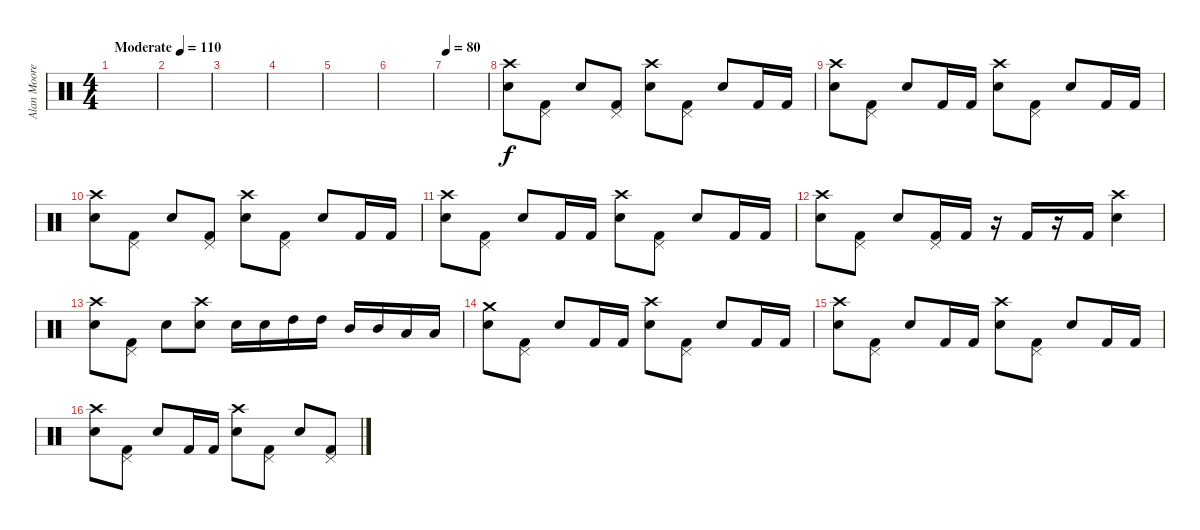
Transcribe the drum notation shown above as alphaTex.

\track ("Alan Moore" "Alan Moore") {instrument percussion}
\staff {score}
\articulation defaults
\ts (4 4)
\tempo (110 "Moderate")
\clef neutral
\ks c
|
|
|
|
|
|
\tempo 80
|
("Snare (hit) 2" "Crash high (hit)").8 ("Pedal Hi-Hat (hit)" "Kick (hit) 2").8 "Snare (hit) 2".8 ("Pedal Hi-Hat (hit)" "Kick (hit) 2").8 ("Snare (hit) 2" "Crash high (hit)").8 ("Pedal Hi-Hat (hit)" "Kick (hit) 2").8 "Snare (hit) 2".8 "Kick (hit) 2".16 "Kick (hit) 2".16 |
("Snare (hit) 2" "Crash high (hit)").8 ("Pedal Hi-Hat (hit)" "Kick (hit) 2").8 "Snare (hit) 2".8 "Kick (hit) 2".16 "Kick (hit) 2".16 ("Snare (hit) 2" "Crash high (hit)").8 ("Pedal Hi-Hat (hit)" "Kick (hit) 2").8 "Snare (hit) 2".8 "Kick (hit) 2".16 "Kick (hit) 2".16 |
("Snare (hit) 2" "Crash high (hit)").8 ("Pedal Hi-Hat (hit)" "Kick (hit) 2").8 "Snare (hit) 2".8 ("Pedal Hi-Hat (hit)" "Kick (hit) 2").8 ("Snare (hit) 2" "Crash high (hit)").8 ("Pedal Hi-Hat (hit)" "Kick (hit) 2").8 "Snare (hit) 2".8 "Kick (hit) 2".16 "Kick (hit) 2".16 |
("Snare (hit) 2" "Crash high (hit)").8 ("Pedal Hi-Hat (hit)" "Kick (hit) 2").8 "Snare (hit) 2".8 "Kick (hit) 2".16 "Kick (hit) 2".16 ("Snare (hit) 2" "Crash high (hit)").8 ("Pedal Hi-Hat (hit)" "Kick (hit) 2").8 "Snare (hit) 2".8 "Kick (hit) 2".16 "Kick (hit) 2".16 |
("Snare (hit) 2" "Crash high (hit)").8 ("Pedal Hi-Hat (hit)" "Kick (hit) 2").8 "Snare (hit) 2".8 ("Pedal Hi-Hat (hit)" "Kick (hit) 2").16 "Kick (hit) 2".16 r.16 "Kick (hit) 2".16 r.16 "Kick (hit) 2".16 ("Snare (hit) 2" "Crash high (hit)").4 |
("Snare (hit) 2" "Crash high (hit)").8 ("Kick (hit) 2" "Pedal Hi-Hat (hit)").8 "Snare (hit) 2".8 ("Snare (hit) 2" "Crash high (hit)").8 "Snare (hit) 2".16 "Snare (hit) 2".16 "High Tom (hit)".16 "High Tom (hit)".16 "Mid Tom (hit)".16 "Mid Tom (hit)".16 "Low Tom (hit)".16 "Low Floor Tom (hit)".16 |
("Snare (hit) 2" "Crash medium (hit)").8 ("Pedal Hi-Hat (hit)" "Kick (hit) 2").8 "Snare (hit) 2".8 "Kick (hit) 2".16 "Kick (hit) 2".16 ("Snare (hit) 2" "Crash high (hit)").8 ("Pedal Hi-Hat (hit)" "Kick (hit) 2").8 "Snare (hit) 2".8 "Kick (hit) 2".16 "Kick (hit) 2".16 |
("Snare (hit) 2" "Crash high (hit)").8 ("Pedal Hi-Hat (hit)" "Kick (hit) 2").8 "Snare (hit) 2".8 "Kick (hit) 2".16 "Kick (hit) 2".16 ("Snare (hit) 2" "Crash high (hit)").8 ("Pedal Hi-Hat (hit)" "Kick (hit) 2").8 "Snare (hit) 2".8 "Kick (hit) 2".16 "Kick (hit) 2".16 |
("Snare (hit) 2" "Crash high (hit)").8 ("Pedal Hi-Hat (hit)" "Kick (hit) 2").8 "Snare (hit) 2".8 "Kick (hit) 2".16 "Kick (hit) 2".16 ("Snare (hit) 2" "Crash high (hit)").8 ("Pedal Hi-Hat (hit)" "Kick (hit) 2").8 "Snare (hit) 2".8 ("Pedal Hi-Hat (hit)" "Kick (hit) 2").8
